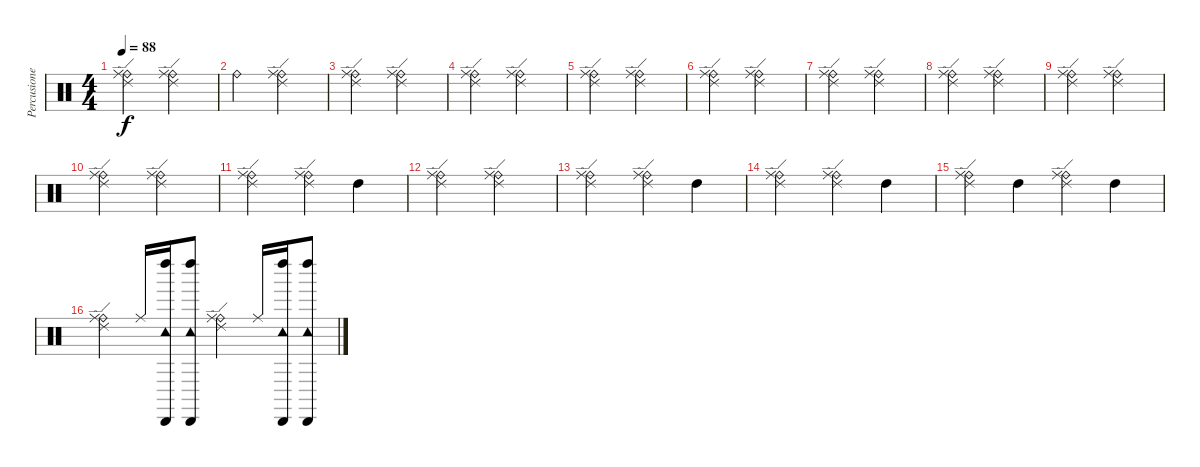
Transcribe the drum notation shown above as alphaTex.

\track ("Percusiones" "Percusione") {instrument percussion}
\staff {score}
\articulation defaults
\ts (4 4)
\tempo 88
\clef neutral
\ks c
("Ride (bell)" "Ride (middle)" "Ride (edge) 2").2{dy f} ("Ride (bell)" "Ride (middle)" "Ride (edge) 2").2 |
"Ride (bell)".2 ("Ride (bell)" "Ride (middle)" "Ride (edge) 2").2 |
("Ride (bell)" "Ride (middle)" "Ride (edge) 2").2 ("Ride (bell)" "Ride (middle)" "Ride (edge) 2").2 |
("Ride (bell)" "Ride (middle)" "Ride (edge) 2").2 ("Ride (bell)" "Ride (middle)" "Ride (edge) 2").2 |
("Ride (bell)" "Ride (middle)" "Ride (edge) 2").2 ("Ride (bell)" "Ride (middle)" "Ride (edge) 2").2 |
("Ride (bell)" "Ride (middle)" "Ride (edge) 2").2 ("Ride (bell)" "Ride (middle)" "Ride (edge) 2").2 |
("Ride (bell)" "Ride (middle)" "Ride (edge) 2").2 ("Ride (bell)" "Ride (middle)" "Ride (edge) 2").2 |
("Ride (bell)" "Ride (middle)" "Ride (edge) 2").2 ("Ride (bell)" "Ride (middle)" "Ride (edge) 2").2 |
("Ride (bell)" "Ride (middle)" "Ride (edge) 2").2 ("Ride (bell)" "Ride (middle)" "Ride (edge) 2").2 |
("Ride (bell)" "Ride (middle)" "Ride (edge) 2").2 ("Ride (bell)" "Ride (middle)" "Ride (edge) 2").2 |
("Ride (bell)" "Ride (middle)" "Ride (edge) 2").2 ("Ride (bell)" "Ride (middle)" "Ride (edge) 2").4 "High Tom (hit)".4 |
("Ride (bell)" "Ride (middle)" "Ride (edge) 2").2 ("Ride (bell)" "Ride (middle)" "Ride (edge) 2").2 |
("Ride (bell)" "Ride (middle)" "Ride (edge) 2").2 ("Ride (bell)" "Ride (middle)" "Ride (edge) 2").4 "High Tom (hit)".4 |
("Ride (bell)" "Ride (middle)" "Ride (edge) 2").2 ("Ride (bell)" "Ride (middle)" "Ride (edge) 2").4 "High Tom (hit)".4 |
("Ride (bell)" "Ride (middle)" "Ride (edge) 2").4 "High Tom (hit)".4 ("Ride (bell)" "Ride (middle)" "Ride (edge) 2").4 "High Tom (hit)".4 |
("Ride (bell)" "Ride (middle)" "Ride (edge) 2").4 "Ride (middle)".16 ("Tambourine (hit)" "Left Maraca (hit)" "Cabasa (hit)").16 ("Tambourine (hit)" "Left Maraca (hit)" "Cabasa (hit)").8 ("Ride (bell)" "Ride (middle)" "Ride (edge) 2").4 "Ride (middle)".16 ("Tambourine (hit)" "Left Maraca (hit)" "Cabasa (hit)").16 ("Tambourine (hit)" "Left Maraca (hit)" "Cabasa (hit)").8
